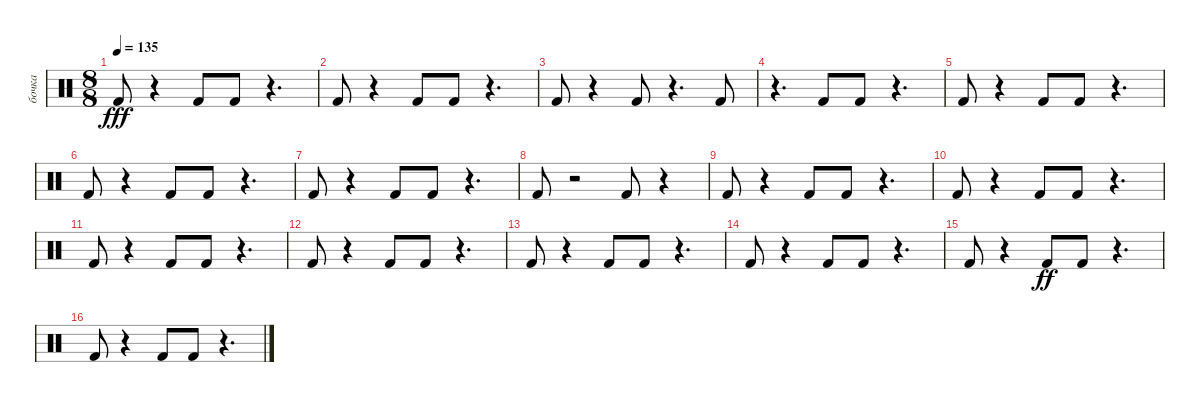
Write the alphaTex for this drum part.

\track ("бочка" "бочка") {instrument percussion}
\staff {score}
\articulation defaults
\ts (8 8)
\tempo 135
\clef neutral
\ks c "Kick (hit) 2".8{dy fff}
r.4 "Kick (hit) 2".8 "Kick (hit) 2".8 r.4{d} |
"Kick (hit) 2".8 r.4 "Kick (hit) 2".8 "Kick (hit) 2".8 r.4{d} |
"Kick (hit) 2".8 r.4 "Kick (hit) 2".8 r.4{d} "Kick (hit) 2".8 |
r.4{d} "Kick (hit) 2".8 "Kick (hit) 2".8 r.4{d} |
"Kick (hit) 2".8 r.4 "Kick (hit) 2".8 "Kick (hit) 2".8 r.4{d} |
"Kick (hit) 2".8 r.4 "Kick (hit) 2".8 "Kick (hit) 2".8 r.4{d} |
"Kick (hit) 2".8 r.4 "Kick (hit) 2".8 "Kick (hit) 2".8 r.4{d} |
"Kick (hit) 2".8 r.2 "Kick (hit) 2".8 r.4 |
"Kick (hit) 2".8 r.4 "Kick (hit) 2".8 "Kick (hit) 2".8 r.4{d} |
"Kick (hit) 2".8 r.4 "Kick (hit) 2".8 "Kick (hit) 2".8 r.4{d} |
"Kick (hit) 2".8 r.4 "Kick (hit) 2".8 "Kick (hit) 2".8 r.4{d} |
"Kick (hit) 2".8 r.4 "Kick (hit) 2".8 "Kick (hit) 2".8 r.4{d} |
"Kick (hit) 2".8 r.4 "Kick (hit) 2".8 "Kick (hit) 2".8 r.4{d} |
"Kick (hit) 2".8 r.4 "Kick (hit) 2".8 "Kick (hit) 2".8 r.4{d} |
"Kick (hit) 2".8 r.4 "Kick (hit) 2".8{dy ff} "Kick (hit) 2".8 r.4{d} |
"Kick (hit) 2".8 r.4 "Kick (hit) 2".8 "Kick (hit) 2".8 r.4{d}
